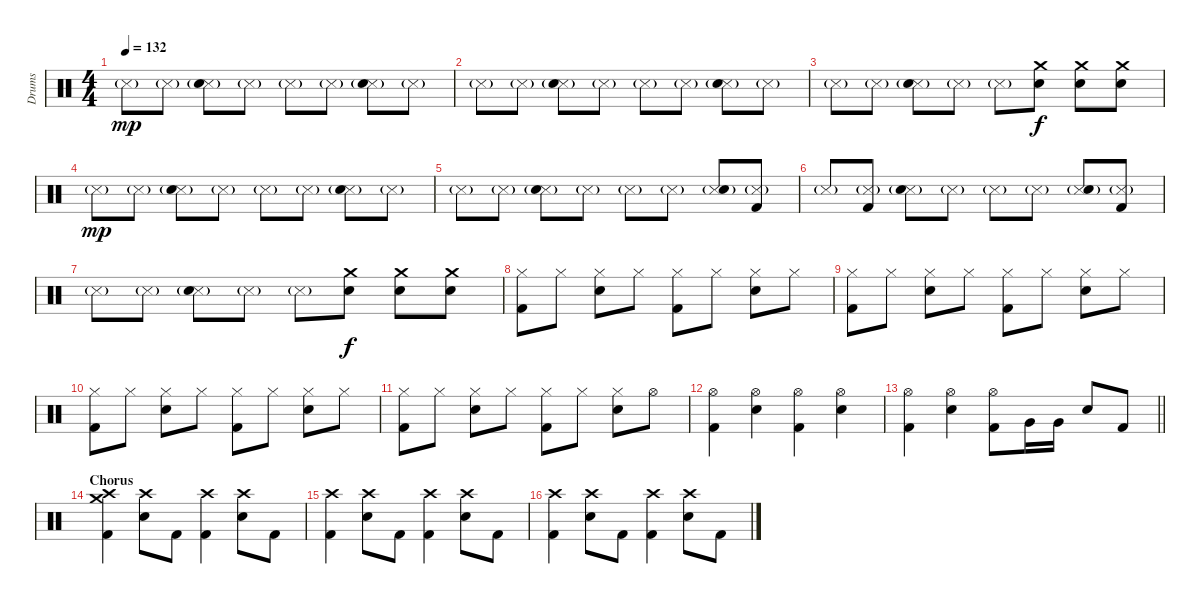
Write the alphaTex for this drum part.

\track ("Drums" "Drums") {instrument percussion}
\staff {score}
\articulation defaults
\ts (4 4)
\tempo 132
\clef neutral
\ks c "Snare (side stick) 3"{g}.8{dy mp} "Snare (side stick) 3"{g}.8
("Snare (side stick) 3"{g} "Electric Snare (hit)").8 "Snare (side stick) 3"{g}.8 "Snare (side stick) 3"{g}.8 "Snare (side stick) 3"{g}.8 ("Snare (side stick) 3"{g} "Electric Snare (hit)").8 "Snare (side stick) 3"{g}.8 |
"Snare (side stick) 3"{g}.8 "Snare (side stick) 3"{g}.8 ("Snare (side stick) 3"{g} "Electric Snare (hit)").8 "Snare (side stick) 3"{g}.8 "Snare (side stick) 3"{g}.8 "Snare (side stick) 3"{g}.8 ("Snare (side stick) 3"{g} "Electric Snare (hit)").8 "Snare (side stick) 3"{g}.8 |
"Snare (side stick) 3"{g}.8 "Snare (side stick) 3"{g}.8 ("Snare (side stick) 3"{g} "Electric Snare (hit)").8 "Snare (side stick) 3"{g}.8 "Snare (side stick) 3"{g}.8 ("Crash medium (hit)" "Electric Snare (hit)").8{dy f} ("Crash medium (hit)" "Electric Snare (hit)").8 ("Crash medium (hit)" "Electric Snare (hit)").8 |
"Snare (side stick) 3"{g}.8{dy mp} "Snare (side stick) 3"{g}.8 ("Snare (side stick) 3"{g} "Electric Snare (hit)").8 "Snare (side stick) 3"{g}.8 "Snare (side stick) 3"{g}.8 "Snare (side stick) 3"{g}.8 ("Snare (side stick) 3"{g} "Electric Snare (hit)").8 "Snare (side stick) 3"{g}.8 |
"Snare (side stick) 3"{g}.8 "Snare (side stick) 3"{g}.8 ("Snare (side stick) 3"{g} "Electric Snare (hit)").8 "Snare (side stick) 3"{g}.8 "Snare (side stick) 3"{g}.8 "Snare (side stick) 3"{g}.8 ("Snare (side stick) 3"{g} "Electric Snare (hit)").8 ("Snare (side stick) 3"{g} "Kick (hit) 2").8 |
"Snare (side stick) 3"{g}.8 ("Snare (side stick) 3"{g} "Kick (hit) 2").8 ("Snare (side stick) 3"{g} "Electric Snare (hit)").8 "Snare (side stick) 3"{g}.8 "Snare (side stick) 3"{g}.8 "Snare (side stick) 3"{g}.8 ("Snare (side stick) 3"{g} "Electric Snare (hit)").8 ("Snare (side stick) 3"{g} "Kick (hit) 2").8 |
"Snare (side stick) 3"{g}.8 "Snare (side stick) 3"{g}.8 ("Snare (side stick) 3"{g} "Electric Snare (hit)").8 "Snare (side stick) 3"{g}.8 "Snare (side stick) 3"{g}.8 ("Crash medium (hit)" "Electric Snare (hit)").8{dy f} ("Crash medium (hit)" "Electric Snare (hit)").8 ("Crash medium (hit)" "Electric Snare (hit)").8 |
("Hi-Hat (closed)" "Kick (hit) 2").8 "Hi-Hat (closed)".8 ("Hi-Hat (closed)" "Electric Snare (hit)").8 "Hi-Hat (closed)".8 ("Hi-Hat (closed)" "Kick (hit) 2").8 "Hi-Hat (closed)".8 ("Hi-Hat (closed)" "Electric Snare (hit)").8 "Hi-Hat (closed)".8 |
("Hi-Hat (closed)" "Kick (hit) 2").8 "Hi-Hat (closed)".8 ("Hi-Hat (closed)" "Electric Snare (hit)").8 "Hi-Hat (closed)".8 ("Hi-Hat (closed)" "Kick (hit) 2").8 "Hi-Hat (closed)".8 ("Hi-Hat (closed)" "Electric Snare (hit)").8 "Hi-Hat (closed)".8 |
("Hi-Hat (closed)" "Kick (hit) 2").8 "Hi-Hat (closed)".8 ("Hi-Hat (closed)" "Electric Snare (hit)").8 "Hi-Hat (closed)".8 ("Hi-Hat (closed)" "Kick (hit) 2").8 "Hi-Hat (closed)".8 ("Hi-Hat (closed)" "Electric Snare (hit)").8 "Hi-Hat (closed)".8 |
("Hi-Hat (closed)" "Kick (hit) 2").8 "Hi-Hat (closed)".8 ("Hi-Hat (closed)" "Electric Snare (hit)").8 "Hi-Hat (closed)".8 ("Hi-Hat (closed)" "Kick (hit) 2").8 "Hi-Hat (closed)".8 ("Hi-Hat (closed)" "Electric Snare (hit)").8 "Hi-Hat (open)".8 |
("Hi-Hat (open)" "Kick (hit) 2").4 ("Hi-Hat (open)" "Electric Snare (hit)").4 ("Hi-Hat (open)" "Kick (hit) 2").4 ("Hi-Hat (open)" "Electric Snare (hit)").4 |
\barLineRight lightlight
("Hi-Hat (open)" "Kick (hit) 2").4 ("Hi-Hat (open)" "Electric Snare (hit)").4 ("Hi-Hat (open)" "Kick (hit) 2").8 "Very Low Tom (hit)".16 "Very Low Tom (hit)".16 "Electric Snare (hit)".8 "Kick (hit) 2".8 |
\section ("" "Chorus")
("Crash medium (hit)" "Crash high (hit)" "Kick (hit) 2").4 ("Crash high (hit)" "Electric Snare (hit)").8 "Kick (hit) 2".8 ("Crash high (hit)" "Kick (hit) 2").4 ("Crash high (hit)" "Electric Snare (hit)").8 "Kick (hit) 2".8 |
("Crash high (hit)" "Kick (hit) 2").4 ("Crash high (hit)" "Electric Snare (hit)").8 "Kick (hit) 2".8 ("Crash high (hit)" "Kick (hit) 2").4 ("Crash high (hit)" "Electric Snare (hit)").8 "Kick (hit) 2".8 |
("Crash high (hit)" "Kick (hit) 2").4 ("Crash high (hit)" "Electric Snare (hit)").8 "Kick (hit) 2".8 ("Crash high (hit)" "Kick (hit) 2").4 ("Crash high (hit)" "Electric Snare (hit)").8 "Kick (hit) 2".8
